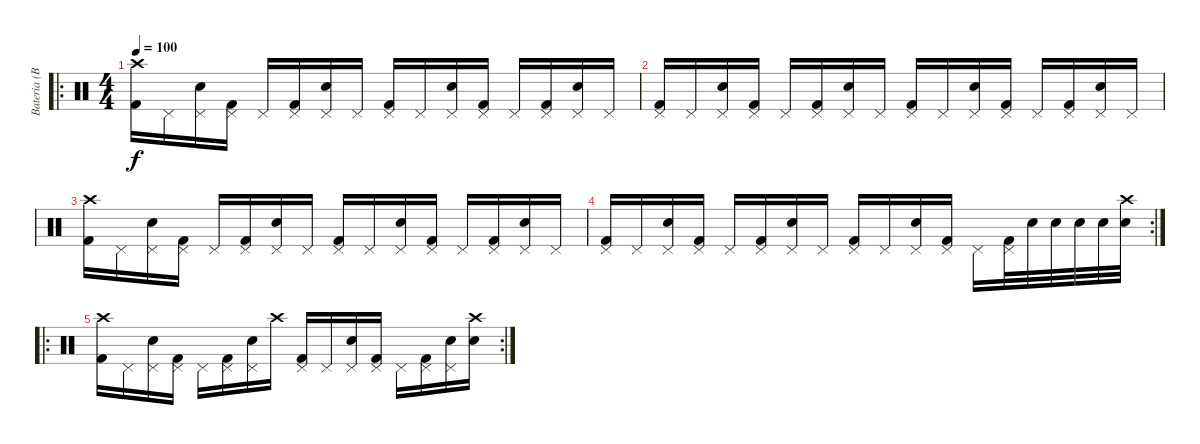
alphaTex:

\track ("Bateria (Bonfá)" "Bateria (B") {instrument percussion}
\staff {score}
\articulation defaults
\ro
\ts (4 4)
\tempo 100
\clef neutral
\ks c
("Crash high (hit)" "Kick (hit) 2").16{dy f} "Pedal Hi-Hat (hit)".16 ("Pedal Hi-Hat (hit)" "Electric Snare (hit)").16 ("Pedal Hi-Hat (hit)" "Kick (hit) 2").16 "Pedal Hi-Hat (hit)".16 ("Pedal Hi-Hat (hit)" "Kick (hit) 2").16 ("Pedal Hi-Hat (hit)" "Electric Snare (hit)").16 "Pedal Hi-Hat (hit)".16 ("Pedal Hi-Hat (hit)" "Kick (hit) 2").16 "Pedal Hi-Hat (hit)".16 ("Pedal Hi-Hat (hit)" "Electric Snare (hit)").16 ("Pedal Hi-Hat (hit)" "Kick (hit) 2").16 "Pedal Hi-Hat (hit)".16 ("Pedal Hi-Hat (hit)" "Kick (hit) 2").16 ("Pedal Hi-Hat (hit)" "Electric Snare (hit)").16 "Pedal Hi-Hat (hit)".16 |
("Pedal Hi-Hat (hit)" "Kick (hit) 2").16 "Pedal Hi-Hat (hit)".16 ("Pedal Hi-Hat (hit)" "Electric Snare (hit)").16 ("Pedal Hi-Hat (hit)" "Kick (hit) 2").16 "Pedal Hi-Hat (hit)".16 ("Pedal Hi-Hat (hit)" "Kick (hit) 2").16 ("Pedal Hi-Hat (hit)" "Electric Snare (hit)").16 "Pedal Hi-Hat (hit)".16 ("Pedal Hi-Hat (hit)" "Kick (hit) 2").16 "Pedal Hi-Hat (hit)".16 ("Pedal Hi-Hat (hit)" "Electric Snare (hit)").16 ("Pedal Hi-Hat (hit)" "Kick (hit) 2").16 "Pedal Hi-Hat (hit)".16 ("Pedal Hi-Hat (hit)" "Kick (hit) 2").16 ("Pedal Hi-Hat (hit)" "Electric Snare (hit)").16 "Pedal Hi-Hat (hit)".16 |
("Crash high (hit)" "Kick (hit) 2").16 "Pedal Hi-Hat (hit)".16 ("Pedal Hi-Hat (hit)" "Electric Snare (hit)").16 ("Pedal Hi-Hat (hit)" "Kick (hit) 2").16 "Pedal Hi-Hat (hit)".16 ("Pedal Hi-Hat (hit)" "Kick (hit) 2").16 ("Pedal Hi-Hat (hit)" "Electric Snare (hit)").16 "Pedal Hi-Hat (hit)".16 ("Pedal Hi-Hat (hit)" "Kick (hit) 2").16 "Pedal Hi-Hat (hit)".16 ("Pedal Hi-Hat (hit)" "Electric Snare (hit)").16 ("Pedal Hi-Hat (hit)" "Kick (hit) 2").16 "Pedal Hi-Hat (hit)".16 ("Pedal Hi-Hat (hit)" "Kick (hit) 2").16 ("Pedal Hi-Hat (hit)" "Electric Snare (hit)").16 "Pedal Hi-Hat (hit)".16 |
\rc 2
("Pedal Hi-Hat (hit)" "Kick (hit) 2").16 "Pedal Hi-Hat (hit)".16 ("Pedal Hi-Hat (hit)" "Electric Snare (hit)").16 ("Pedal Hi-Hat (hit)" "Kick (hit) 2").16 "Pedal Hi-Hat (hit)".16 ("Pedal Hi-Hat (hit)" "Kick (hit) 2").16 ("Pedal Hi-Hat (hit)" "Electric Snare (hit)").16 "Pedal Hi-Hat (hit)".16 ("Pedal Hi-Hat (hit)" "Kick (hit) 2").16 "Pedal Hi-Hat (hit)".16 ("Pedal Hi-Hat (hit)" "Electric Snare (hit)").16 ("Pedal Hi-Hat (hit)" "Kick (hit) 2").16 "Pedal Hi-Hat (hit)".16 ("Pedal Hi-Hat (hit)" "Kick (hit) 2").32 "Electric Snare (hit)".32 "Electric Snare (hit)".32 "Electric Snare (hit)".32 "Electric Snare (hit)".32 ("Crash high (hit)" "Electric Snare (hit)").32 |
\ro
\rc 2
("Crash high (hit)" "Kick (hit) 2").16 "Pedal Hi-Hat (hit)".16 ("Pedal Hi-Hat (hit)" "Electric Snare (hit)").16 ("Pedal Hi-Hat (hit)" "Kick (hit) 2").16 "Pedal Hi-Hat (hit)".16 ("Pedal Hi-Hat (hit)" "Kick (hit) 2").16 ("Pedal Hi-Hat (hit)" "Electric Snare (hit)").16 "Crash high (hit)".16 ("Pedal Hi-Hat (hit)" "Kick (hit) 2").16 "Pedal Hi-Hat (hit)".16 ("Pedal Hi-Hat (hit)" "Electric Snare (hit)").16 ("Pedal Hi-Hat (hit)" "Kick (hit) 2").16 "Pedal Hi-Hat (hit)".16 ("Pedal Hi-Hat (hit)" "Kick (hit) 2").16 ("Pedal Hi-Hat (hit)" "Electric Snare (hit)").16 ("Crash high (hit)" "Electric Snare (hit)").16
